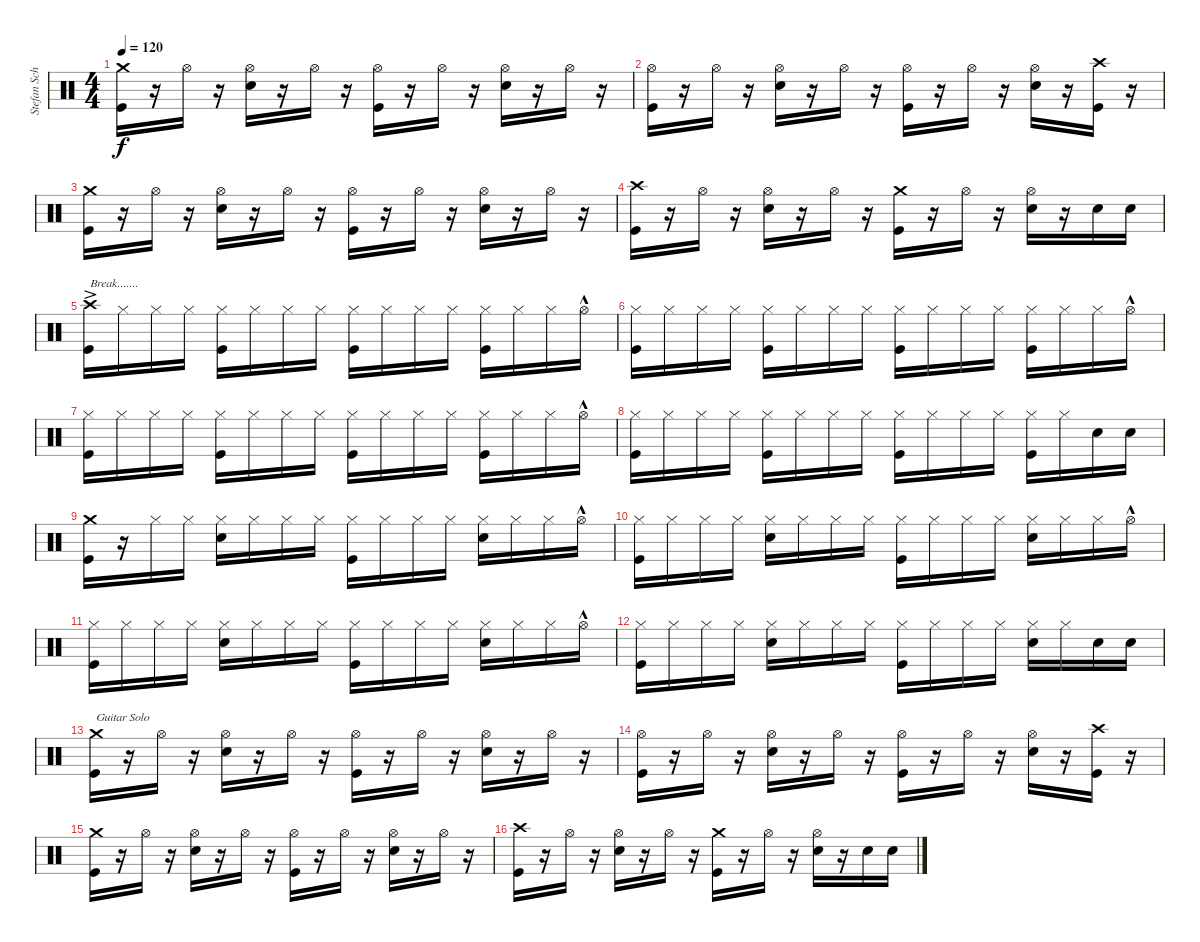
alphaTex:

\track ("Stefan Schwarzmann" "Stefan Sch") {instrument percussion}
\staff {score}
\articulation defaults
\ts (4 4)
\tempo 120
\clef neutral
\ks c
("Kick (hit)" "Crash medium (hit)").16{dy f} r.16 "Hi-Hat (open)".16 r.16 ("Snare (hit) 2" "Hi-Hat (open)").16 r.16 "Hi-Hat (open)".16 r.16 ("Kick (hit)" "Hi-Hat (open)").16 r.16 "Hi-Hat (open)".16 r.16 ("Snare (hit) 2" "Hi-Hat (open)").16 r.16 "Hi-Hat (open)".16 r.16 |
("Kick (hit)" "Hi-Hat (open)").16 r.16 "Hi-Hat (open)".16 r.16 ("Snare (hit) 2" "Hi-Hat (open)").16 r.16 "Hi-Hat (open)".16 r.16 ("Kick (hit)" "Hi-Hat (open)").16 r.16 "Hi-Hat (open)".16 r.16 ("Snare (hit) 2" "Hi-Hat (open)").16 r.16 ("Crash high (hit)" "Kick (hit)").16 r.16 |
("Kick (hit)" "Crash medium (hit)").16 r.16 "Hi-Hat (open)".16 r.16 ("Snare (hit) 2" "Hi-Hat (open)").16 r.16 "Hi-Hat (open)".16 r.16 ("Kick (hit)" "Hi-Hat (open)").16 r.16 "Hi-Hat (open)".16 r.16 ("Snare (hit) 2" "Hi-Hat (open)").16 r.16 "Hi-Hat (open)".16 r.16 |
("Kick (hit)" "Crash high (hit)").16 r.16 "Hi-Hat (open)".16 r.16 ("Snare (hit) 2" "Hi-Hat (open)").16 r.16 "Hi-Hat (open)".16 r.16 ("Kick (hit)" "Crash medium (hit)").16 r.16 "Hi-Hat (open)".16 r.16 ("Snare (hit) 2" "Hi-Hat (open)").16 r.16 "Snare (hit) 2".16 "Snare (hit) 2".16 |
("Kick (hit)" "Crash high (hit)"{ac}).16{txt "Break......."} "Hi-Hat (closed)".16 "Hi-Hat (closed)".16 "Hi-Hat (closed)".16 ("Hi-Hat (closed)" "Kick (hit)").16 "Hi-Hat (closed)".16 "Hi-Hat (closed)".16 "Hi-Hat (closed)".16 ("Kick (hit)" "Hi-Hat (closed)").16 "Hi-Hat (closed)".16 "Hi-Hat (closed)".16 "Hi-Hat (closed)".16 ("Hi-Hat (closed)" "Kick (hit)").16 "Hi-Hat (closed)".16 "Hi-Hat (closed)".16 "Hi-Hat (open)"{hac}.16 |
("Kick (hit)" "Hi-Hat (closed)").16 "Hi-Hat (closed)".16 "Hi-Hat (closed)".16 "Hi-Hat (closed)".16 ("Hi-Hat (closed)" "Kick (hit)").16 "Hi-Hat (closed)".16 "Hi-Hat (closed)".16 "Hi-Hat (closed)".16 ("Kick (hit)" "Hi-Hat (closed)").16 "Hi-Hat (closed)".16 "Hi-Hat (closed)".16 "Hi-Hat (closed)".16 ("Hi-Hat (closed)" "Kick (hit)").16 "Hi-Hat (closed)".16 "Hi-Hat (closed)".16 "Hi-Hat (open)"{hac}.16 |
("Kick (hit)" "Hi-Hat (closed)").16 "Hi-Hat (closed)".16 "Hi-Hat (closed)".16 "Hi-Hat (closed)".16 ("Hi-Hat (closed)" "Kick (hit)").16 "Hi-Hat (closed)".16 "Hi-Hat (closed)".16 "Hi-Hat (closed)".16 ("Kick (hit)" "Hi-Hat (closed)").16 "Hi-Hat (closed)".16 "Hi-Hat (closed)".16 "Hi-Hat (closed)".16 ("Hi-Hat (closed)" "Kick (hit)").16 "Hi-Hat (closed)".16 "Hi-Hat (closed)".16 "Hi-Hat (open)"{hac}.16 |
("Kick (hit)" "Hi-Hat (closed)").16 "Hi-Hat (closed)".16 "Hi-Hat (closed)".16 "Hi-Hat (closed)".16 ("Hi-Hat (closed)" "Kick (hit)").16 "Hi-Hat (closed)".16 "Hi-Hat (closed)".16 "Hi-Hat (closed)".16 ("Kick (hit)" "Hi-Hat (closed)").16 "Hi-Hat (closed)".16 "Hi-Hat (closed)".16 "Hi-Hat (closed)".16 ("Hi-Hat (closed)" "Kick (hit)").16 "Hi-Hat (closed)".16 "Snare (hit) 2".16 "Snare (hit) 2".16 |
("Kick (hit)" "Crash medium (hit)").16 r.16 "Hi-Hat (closed)".16 "Hi-Hat (closed)".16 ("Snare (hit) 2" "Hi-Hat (closed)").16 "Hi-Hat (closed)".16 "Hi-Hat (closed)".16 "Hi-Hat (closed)".16 ("Kick (hit)" "Hi-Hat (closed)").16 "Hi-Hat (closed)".16 "Hi-Hat (closed)".16 "Hi-Hat (closed)".16 ("Snare (hit) 2" "Hi-Hat (closed)").16 "Hi-Hat (closed)".16 "Hi-Hat (closed)".16 "Hi-Hat (open)"{hac}.16 |
("Kick (hit)" "Hi-Hat (closed)").16 "Hi-Hat (closed)".16 "Hi-Hat (closed)".16 "Hi-Hat (closed)".16 ("Snare (hit) 2" "Hi-Hat (closed)").16 "Hi-Hat (closed)".16 "Hi-Hat (closed)".16 "Hi-Hat (closed)".16 ("Kick (hit)" "Hi-Hat (closed)").16 "Hi-Hat (closed)".16 "Hi-Hat (closed)".16 "Hi-Hat (closed)".16 ("Snare (hit) 2" "Hi-Hat (closed)").16 "Hi-Hat (closed)".16 "Hi-Hat (closed)".16 "Hi-Hat (open)"{hac}.16 |
("Kick (hit)" "Hi-Hat (closed)").16 "Hi-Hat (closed)".16 "Hi-Hat (closed)".16 "Hi-Hat (closed)".16 ("Snare (hit) 2" "Hi-Hat (closed)").16 "Hi-Hat (closed)".16 "Hi-Hat (closed)".16 "Hi-Hat (closed)".16 ("Kick (hit)" "Hi-Hat (closed)").16 "Hi-Hat (closed)".16 "Hi-Hat (closed)".16 "Hi-Hat (closed)".16 ("Snare (hit) 2" "Hi-Hat (closed)").16 "Hi-Hat (closed)".16 "Hi-Hat (closed)".16 "Hi-Hat (open)"{hac}.16 |
("Kick (hit)" "Hi-Hat (closed)").16 "Hi-Hat (closed)".16 "Hi-Hat (closed)".16 "Hi-Hat (closed)".16 ("Snare (hit) 2" "Hi-Hat (closed)").16 "Hi-Hat (closed)".16 "Hi-Hat (closed)".16 "Hi-Hat (closed)".16 ("Kick (hit)" "Hi-Hat (closed)").16 "Hi-Hat (closed)".16 "Hi-Hat (closed)".16 "Hi-Hat (closed)".16 ("Snare (hit) 2" "Hi-Hat (closed)").16 "Hi-Hat (closed)".16 "Snare (hit) 2".16 "Snare (hit) 2".16 |
("Kick (hit)" "Crash medium (hit)").16{txt "Guitar Solo"} r.16 "Hi-Hat (open)".16 r.16 ("Snare (hit) 2" "Hi-Hat (open)").16 r.16 "Hi-Hat (open)".16 r.16 ("Kick (hit)" "Hi-Hat (open)").16 r.16 "Hi-Hat (open)".16 r.16 ("Snare (hit) 2" "Hi-Hat (open)").16 r.16 "Hi-Hat (open)".16 r.16 |
("Kick (hit)" "Hi-Hat (open)").16 r.16 "Hi-Hat (open)".16 r.16 ("Snare (hit) 2" "Hi-Hat (open)").16 r.16 "Hi-Hat (open)".16 r.16 ("Kick (hit)" "Hi-Hat (open)").16 r.16 "Hi-Hat (open)".16 r.16 ("Snare (hit) 2" "Hi-Hat (open)").16 r.16 ("Crash high (hit)" "Kick (hit)").16 r.16 |
("Kick (hit)" "Crash medium (hit)").16 r.16 "Hi-Hat (open)".16 r.16 ("Snare (hit) 2" "Hi-Hat (open)").16 r.16 "Hi-Hat (open)".16 r.16 ("Kick (hit)" "Hi-Hat (open)").16 r.16 "Hi-Hat (open)".16 r.16 ("Snare (hit) 2" "Hi-Hat (open)").16 r.16 "Hi-Hat (open)".16 r.16 |
("Kick (hit)" "Crash high (hit)").16 r.16 "Hi-Hat (open)".16 r.16 ("Snare (hit) 2" "Hi-Hat (open)").16 r.16 "Hi-Hat (open)".16 r.16 ("Kick (hit)" "Crash medium (hit)").16 r.16 "Hi-Hat (open)".16 r.16 ("Snare (hit) 2" "Hi-Hat (open)").16 r.16 "Snare (hit) 2".16 "Snare (hit) 2".16
